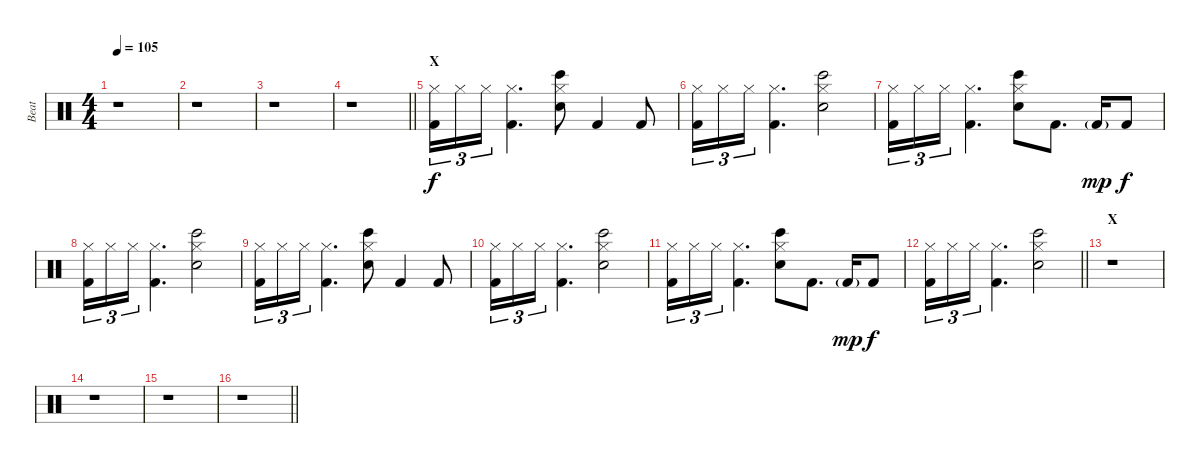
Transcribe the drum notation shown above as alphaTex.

\track ("Beat" "Beat") {instrument percussion}
\staff {score}
\articulation defaults
\ts (4 4)
\tempo 105
\clef neutral
\ks c
r.1{dy f} |
r.1 |
r.1 |
\barLineRight lightlight
r.1 |
\section ("" "X")
("Hi-Hat (closed)" "Kick (hit) 2").16{tu (3 2)} "Hi-Hat (closed)".16{tu (3 2)} "Hi-Hat (closed)".16{tu (3 2)} ("Hi-Hat (closed)" "Kick (hit) 2").4{d} ("Hi-Hat (closed)" "Snare (hit) 2" "Bongo High (hit)").8 "Kick (hit) 2".4 "Kick (hit) 2".8 |
("Hi-Hat (closed)" "Kick (hit) 2").16{tu (3 2)} "Hi-Hat (closed)".16{tu (3 2)} "Hi-Hat (closed)".16{tu (3 2)} ("Hi-Hat (closed)" "Kick (hit) 2").4{d} ("Hi-Hat (closed)" "Snare (hit) 2" "Bongo High (hit)").2 |
("Hi-Hat (closed)" "Kick (hit) 2").16{tu (3 2)} "Hi-Hat (closed)".16{tu (3 2)} "Hi-Hat (closed)".16{tu (3 2)} ("Hi-Hat (closed)" "Kick (hit) 2").4{d} ("Hi-Hat (closed)" "Snare (hit) 2" "Bongo High (hit)").8 "Kick (hit) 2".8{d} "Kick (hit) 2"{g}.16{dy mp} "Kick (hit) 2".8{dy f} |
("Hi-Hat (closed)" "Kick (hit) 2").16{tu (3 2)} "Hi-Hat (closed)".16{tu (3 2)} "Hi-Hat (closed)".16{tu (3 2)} ("Hi-Hat (closed)" "Kick (hit) 2").4{d} ("Hi-Hat (closed)" "Snare (hit) 2" "Bongo High (hit)").2 |
("Hi-Hat (closed)" "Kick (hit) 2").16{tu (3 2)} "Hi-Hat (closed)".16{tu (3 2)} "Hi-Hat (closed)".16{tu (3 2)} ("Hi-Hat (closed)" "Kick (hit) 2").4{d} ("Hi-Hat (closed)" "Snare (hit) 2" "Bongo High (hit)").8 "Kick (hit) 2".4 "Kick (hit) 2".8 |
("Hi-Hat (closed)" "Kick (hit) 2").16{tu (3 2)} "Hi-Hat (closed)".16{tu (3 2)} "Hi-Hat (closed)".16{tu (3 2)} ("Hi-Hat (closed)" "Kick (hit) 2").4{d} ("Hi-Hat (closed)" "Snare (hit) 2" "Bongo High (hit)").2 |
("Hi-Hat (closed)" "Kick (hit) 2").16{tu (3 2)} "Hi-Hat (closed)".16{tu (3 2)} "Hi-Hat (closed)".16{tu (3 2)} ("Hi-Hat (closed)" "Kick (hit) 2").4{d} ("Hi-Hat (closed)" "Snare (hit) 2" "Bongo High (hit)").8 "Kick (hit) 2".8{d} "Kick (hit) 2"{g}.16{dy mp} "Kick (hit) 2".8{dy f} |
\barLineRight lightlight
("Hi-Hat (closed)" "Kick (hit) 2").16{tu (3 2)} "Hi-Hat (closed)".16{tu (3 2)} "Hi-Hat (closed)".16{tu (3 2)} ("Hi-Hat (closed)" "Kick (hit) 2").4{d} ("Hi-Hat (closed)" "Snare (hit) 2" "Bongo High (hit)").2 |
\section ("" "X")
r.1 |
r.1 |
r.1 |
\barLineRight lightlight
r.1
